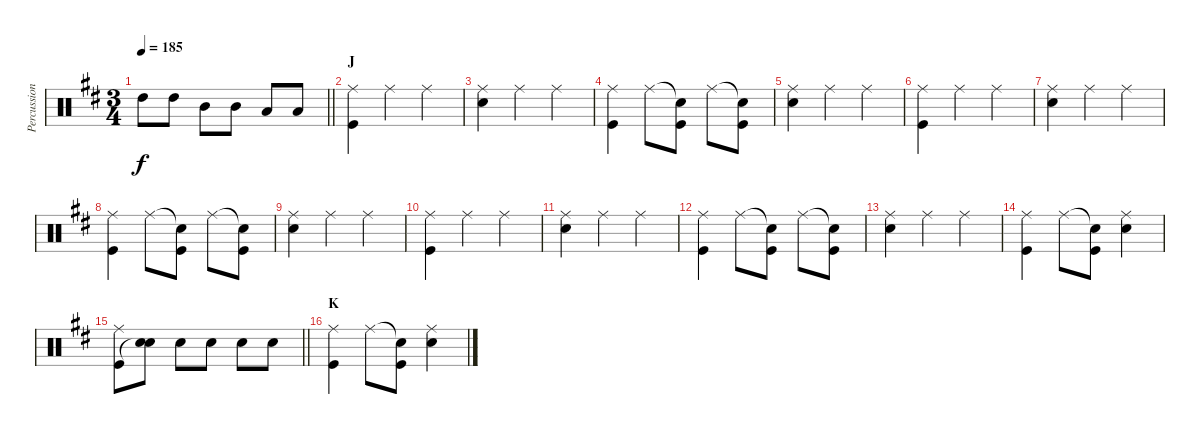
\track ("Percussion" "Percussion") {instrument percussion}
\staff {score}
\articulation defaults
\ts (3 4)
\tempo 185
\clef neutral
\barLineRight lightlight
\ks d "High Tom (hit)".8{dy f} "High Tom (hit)".8 "Mid Tom (hit)".8 "Mid Tom (hit)".8 "Low Tom (hit)".8 "Low Tom (hit)".8
|
\section ("" "J")
("Ride (middle)" "Kick (hit)").4 "Ride (middle)".4 "Ride (middle)".4 |
("Ride (middle)" "Snare (hit) 2").4 "Ride (middle)".4 "Ride (middle)".4 |
("Ride (middle)" "Kick (hit)").4 "Ride (middle)".8 ("Snare (hit)"{t} "Kick (hit)").8 "Ride (middle)".8 ("Snare (hit)"{t} "Kick (hit)").8 |
("Ride (middle)" "Snare (hit) 2").4 "Ride (middle)".4 "Ride (middle)".4 |
("Ride (middle)" "Kick (hit)").4 "Ride (middle)".4 "Ride (middle)".4 |
("Ride (middle)" "Snare (hit) 2").4 "Ride (middle)".4 "Ride (middle)".4 |
("Ride (middle)" "Kick (hit)").4 "Ride (middle)".8 ("Snare (hit)"{t} "Kick (hit)").8 "Ride (middle)".8 ("Snare (hit)"{t} "Kick (hit)").8 |
("Ride (middle)" "Snare (hit) 2").4 "Ride (middle)".4 "Ride (middle)".4 |
("Ride (middle)" "Kick (hit)").4 "Ride (middle)".4 "Ride (middle)".4 |
("Ride (middle)" "Snare (hit) 2").4 "Ride (middle)".4 "Ride (middle)".4 |
("Ride (middle)" "Kick (hit)").4 "Ride (middle)".8 ("Snare (hit)"{t} "Kick (hit)").8 "Ride (middle)".8 ("Snare (hit)"{t} "Kick (hit)").8 |
("Ride (middle)" "Snare (hit) 2").4 "Ride (middle)".4 "Ride (middle)".4 |
("Ride (middle)" "Kick (hit)").4 "Ride (middle)".8 ("Snare (hit)"{t} "Kick (hit)").8 ("Ride (middle)" "Snare (hit) 2").4 |
\barLineRight lightlight
("Ride (middle)" "Kick (hit)").8 ("Snare (hit) 2" "Snare (hit)"{t}).8 "Snare (hit) 2".8 "Snare (hit) 2".8 "Snare (hit) 2".8 "Snare (hit) 2".8 |
\section ("" "K")
("Ride (middle)" "Kick (hit)").4 "Ride (middle)".8 ("Snare (hit)"{t} "Kick (hit)").8 ("Ride (middle)" "Snare (hit) 2").4
